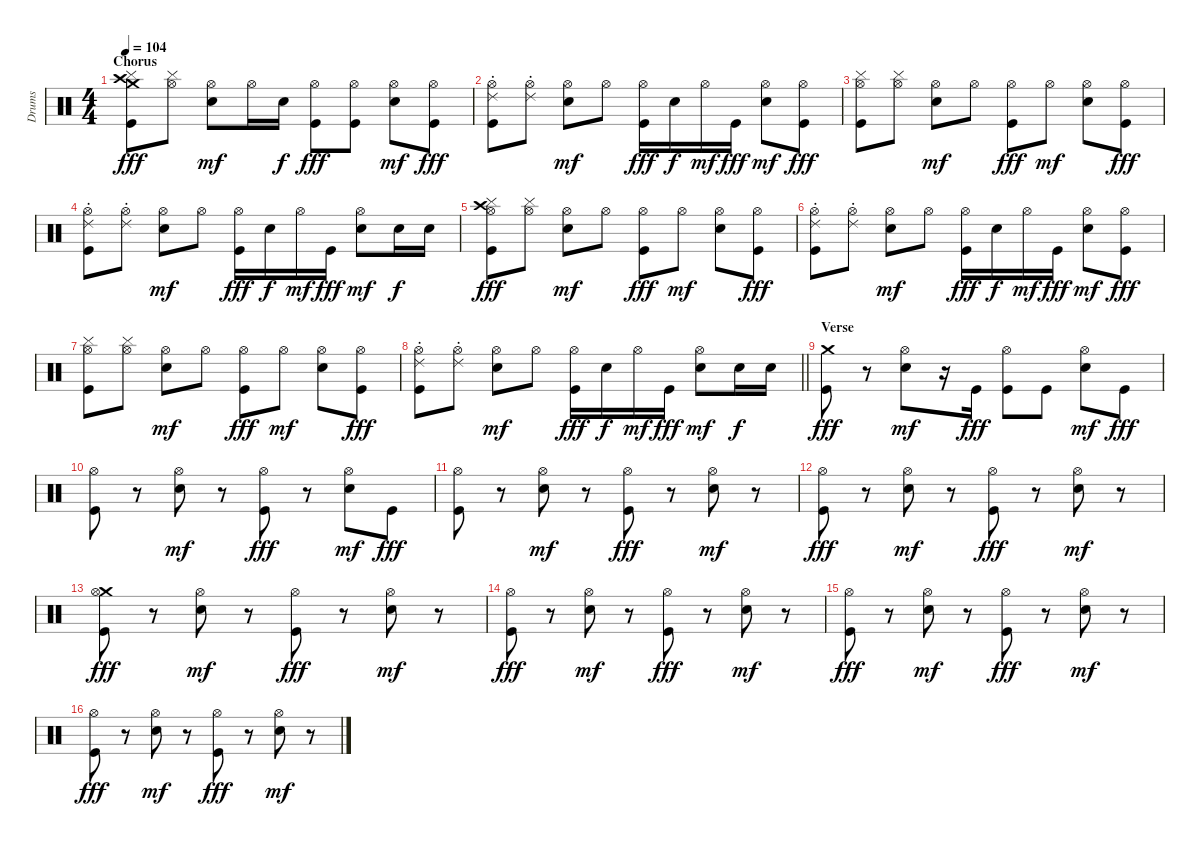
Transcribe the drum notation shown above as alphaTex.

\track ("Drums" "Drums") {instrument percussion}
\staff {score}
\articulation defaults
\ts (4 4)
\section ("" "Chorus")
\tempo 104
\clef neutral
\ks c
("Crash high (hit)" "Crash medium (hit)" "Cymbal (hit)" "Kick (hit)").8{dy fff} ("Hi-Hat (open)" "Cymbal (hit)").8 ("Hi-Hat (open)" "Electric Snare (hit)").8{dy mf} "Hi-Hat (open)".16 "Electric Snare (hit)".16{dy f} ("Hi-Hat (open)" "Kick (hit)").8{dy fff} ("Hi-Hat (open)" "Kick (hit)").8 ("Hi-Hat (open)" "Electric Snare (hit)").8{dy mf} ("Hi-Hat (open)" "Kick (hit)").8{dy fff} |
("Hi-Hat (open)" "Ride (choke) 2" "Kick (hit)").8 ("Hi-Hat (open)" "Ride (choke) 2").8 ("Hi-Hat (open)" "Electric Snare (hit)").8{dy mf} "Hi-Hat (open)".8 ("Hi-Hat (open)" "Kick (hit)").16{dy fff} "Electric Snare (hit)".16{dy f} "Hi-Hat (open)".16{dy mf} "Kick (hit)".16{dy fff} ("Hi-Hat (open)" "Electric Snare (hit)").8{dy mf} ("Hi-Hat (open)" "Kick (hit)").8{dy fff} |
("Hi-Hat (open)" "Cymbal (hit)" "Kick (hit)").8 ("Hi-Hat (open)" "Cymbal (hit)").8 ("Hi-Hat (open)" "Electric Snare (hit)").8{dy mf} "Hi-Hat (open)".8 ("Hi-Hat (open)" "Kick (hit)").8{dy fff} "Hi-Hat (open)".8{dy mf} ("Hi-Hat (open)" "Electric Snare (hit)").8 ("Hi-Hat (open)" "Kick (hit)").8{dy fff} |
("Hi-Hat (open)" "Ride (choke) 2" "Kick (hit)").8 ("Hi-Hat (open)" "Ride (choke) 2").8 ("Hi-Hat (open)" "Electric Snare (hit)").8{dy mf} "Hi-Hat (open)".8 ("Hi-Hat (open)" "Kick (hit)").16{dy fff} "Electric Snare (hit)".16{dy f} "Hi-Hat (open)".16{dy mf} "Kick (hit)".16{dy fff} ("Hi-Hat (open)" "Electric Snare (hit)").8{dy mf} "Electric Snare (hit)".16{dy f} "Electric Snare (hit)".16 |
("Crash high (hit)" "Hi-Hat (open)" "Cymbal (hit)" "Kick (hit)").8{dy fff} ("Hi-Hat (open)" "Cymbal (hit)").8 ("Hi-Hat (open)" "Electric Snare (hit)").8{dy mf} "Hi-Hat (open)".8 ("Hi-Hat (open)" "Kick (hit)").8{dy fff} "Hi-Hat (open)".8{dy mf} ("Hi-Hat (open)" "Electric Snare (hit)").8 ("Hi-Hat (open)" "Kick (hit)").8{dy fff} |
("Hi-Hat (open)" "Ride (choke) 2" "Kick (hit)").8 ("Hi-Hat (open)" "Ride (choke) 2").8 ("Hi-Hat (open)" "Electric Snare (hit)").8{dy mf} "Hi-Hat (open)".8 ("Hi-Hat (open)" "Kick (hit)").16{dy fff} "Electric Snare (hit)".16{dy f} "Hi-Hat (open)".16{dy mf} "Kick (hit)".16{dy fff} ("Hi-Hat (open)" "Electric Snare (hit)").8{dy mf} ("Hi-Hat (open)" "Kick (hit)").8{dy fff} |
("Hi-Hat (open)" "Cymbal (hit)" "Kick (hit)").8 ("Hi-Hat (open)" "Cymbal (hit)").8 ("Hi-Hat (open)" "Electric Snare (hit)").8{dy mf} "Hi-Hat (open)".8 ("Hi-Hat (open)" "Kick (hit)").8{dy fff} "Hi-Hat (open)".8{dy mf} ("Hi-Hat (open)" "Electric Snare (hit)").8 ("Hi-Hat (open)" "Kick (hit)").8{dy fff} |
\barLineRight lightlight
("Hi-Hat (open)" "Ride (choke) 2" "Kick (hit)").8 ("Hi-Hat (open)" "Ride (choke) 2").8 ("Hi-Hat (open)" "Electric Snare (hit)").8{dy mf} "Hi-Hat (open)".8 ("Hi-Hat (open)" "Kick (hit)").16{dy fff} "Electric Snare (hit)".16{dy f} "Hi-Hat (open)".16{dy mf} "Kick (hit)".16{dy fff} ("Hi-Hat (open)" "Electric Snare (hit)").8{dy mf} "Electric Snare (hit)".16{dy f} "Electric Snare (hit)".16 |
\section ("" "Verse")
("Crash medium (hit)" "Kick (hit)").8{dy fff} r.8 ("Hi-Hat (open)" "Electric Snare (hit)").8{dy mf} r.16 "Kick (hit)".16{dy fff} ("Hi-Hat (open)" "Kick (hit)").8 "Kick (hit)".8 ("Hi-Hat (open)" "Electric Snare (hit)").8{dy mf} "Kick (hit)".8{dy fff} |
("Hi-Hat (open)" "Kick (hit)").8 r.8 ("Hi-Hat (open)" "Electric Snare (hit)").8{dy mf} r.8 ("Hi-Hat (open)" "Kick (hit)").8{dy fff} r.8 ("Hi-Hat (open)" "Electric Snare (hit)").8{dy mf} "Kick (hit)".8{dy fff} |
("Hi-Hat (open)" "Kick (hit)").8 r.8 ("Hi-Hat (open)" "Electric Snare (hit)").8{dy mf} r.8 ("Hi-Hat (open)" "Kick (hit)").8{dy fff} r.8 ("Hi-Hat (open)" "Electric Snare (hit)").8{dy mf} r.8 |
("Hi-Hat (open)" "Kick (hit)").8{dy fff} r.8 ("Hi-Hat (open)" "Electric Snare (hit)").8{dy mf} r.8 ("Hi-Hat (open)" "Kick (hit)").8{dy fff} r.8 ("Hi-Hat (open)" "Electric Snare (hit)").8{dy mf} r.8 |
("Crash medium (hit)" "Hi-Hat (open)" "Kick (hit)").8{dy fff} r.8 ("Hi-Hat (open)" "Electric Snare (hit)").8{dy mf} r.8 ("Hi-Hat (open)" "Kick (hit)").8{dy fff} r.8 ("Hi-Hat (open)" "Electric Snare (hit)").8{dy mf} r.8 |
("Hi-Hat (open)" "Kick (hit)").8{dy fff} r.8 ("Hi-Hat (open)" "Electric Snare (hit)").8{dy mf} r.8 ("Hi-Hat (open)" "Kick (hit)").8{dy fff} r.8 ("Hi-Hat (open)" "Electric Snare (hit)").8{dy mf} r.8 |
("Hi-Hat (open)" "Kick (hit)").8{dy fff} r.8 ("Hi-Hat (open)" "Electric Snare (hit)").8{dy mf} r.8 ("Hi-Hat (open)" "Kick (hit)").8{dy fff} r.8 ("Hi-Hat (open)" "Electric Snare (hit)").8{dy mf} r.8 |
("Hi-Hat (open)" "Kick (hit)").8{dy fff} r.8 ("Hi-Hat (open)" "Electric Snare (hit)").8{dy mf} r.8 ("Hi-Hat (open)" "Kick (hit)").8{dy fff} r.8 ("Hi-Hat (open)" "Electric Snare (hit)").8{dy mf} r.8
